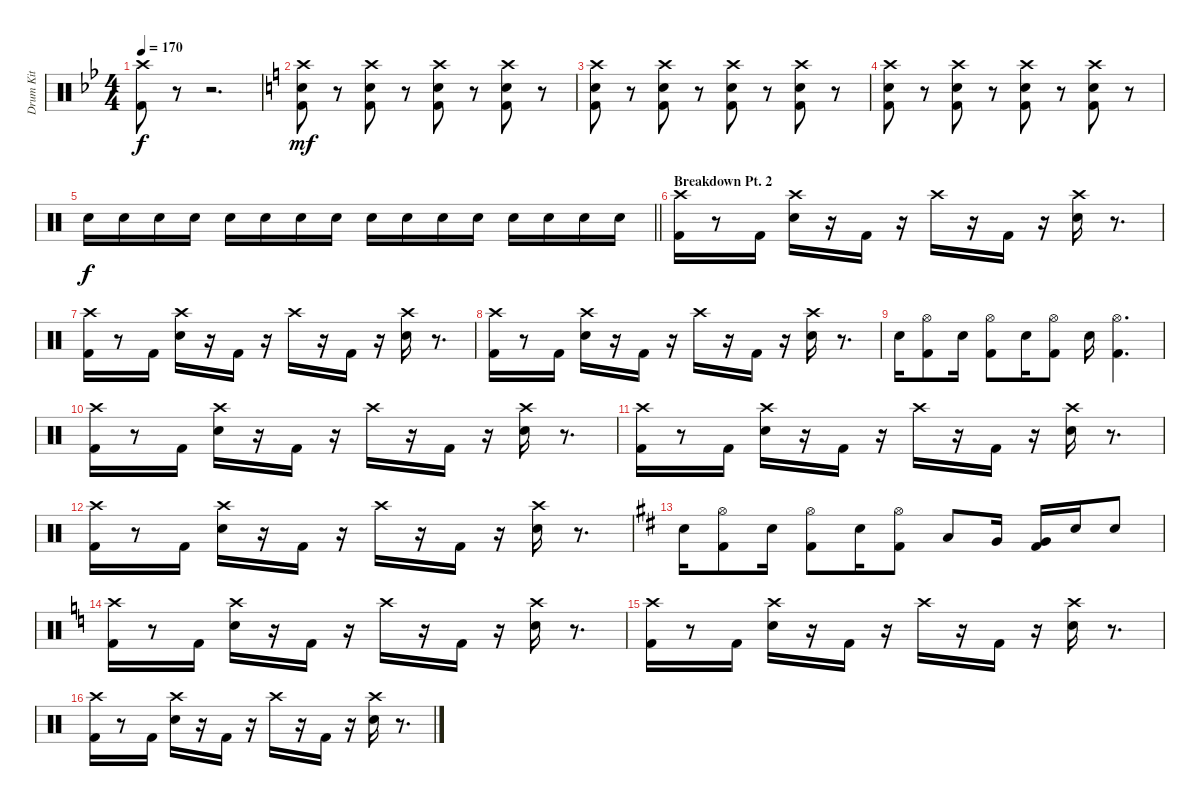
\track ("Drum Kit" "Drum Kit") {mute instrument percussion}
\staff {score}
\articulation defaults
\ts (4 4)
\tempo 170
\clef neutral
\ks bb
("Crash high (hit)" "Kick (hit) 2").8{dy f} r.8 r.2{d} |
\ks c
("Electric Snare (hit)" "Crash high (hit)" "Kick (hit) 2").8{dy mf} r.8 ("Electric Snare (hit)" "Crash high (hit)" "Kick (hit) 2").8 r.8 ("Electric Snare (hit)" "Crash high (hit)" "Kick (hit) 2").8 r.8 ("Electric Snare (hit)" "Crash high (hit)" "Kick (hit) 2").8 r.8 |
("Electric Snare (hit)" "Crash high (hit)" "Kick (hit) 2").8 r.8 ("Electric Snare (hit)" "Crash high (hit)" "Kick (hit) 2").8 r.8 ("Electric Snare (hit)" "Crash high (hit)" "Kick (hit) 2").8 r.8 ("Electric Snare (hit)" "Crash high (hit)" "Kick (hit) 2").8 r.8 |
("Electric Snare (hit)" "Crash high (hit)" "Kick (hit) 2").8 r.8 ("Electric Snare (hit)" "Crash high (hit)" "Kick (hit) 2").8 r.8 ("Electric Snare (hit)" "Crash high (hit)" "Kick (hit) 2").8 r.8 ("Electric Snare (hit)" "Crash high (hit)" "Kick (hit) 2").8 r.8 |
\barLineRight lightlight "Electric Snare (hit)".16{dy f} "Electric Snare (hit)".16 "Electric Snare (hit)".16 "Electric Snare (hit)".16 "Electric Snare (hit)".16 "Electric Snare (hit)".16 "Electric Snare (hit)".16 "Electric Snare (hit)".16 "Electric Snare (hit)".16 "Electric Snare (hit)".16 "Electric Snare (hit)".16 "Electric Snare (hit)".16 "Electric Snare (hit)".16 "Electric Snare (hit)".16 "Electric Snare (hit)".16 "Electric Snare (hit)".16
|
\section ("" "Breakdown Pt. 2")
("Crash high (hit)" "Kick (hit) 2").16 r.8 "Kick (hit) 2".16 ("Crash high (hit)" "Electric Snare (hit)").16 r.16 "Kick (hit) 2".16 r.16 "Crash high (hit)".16 r.16 "Kick (hit) 2".16 r.16 ("Crash high (hit)" "Electric Snare (hit)").16 r.8{d} |
("Crash high (hit)" "Kick (hit) 2").16 r.8 "Kick (hit) 2".16 ("Crash high (hit)" "Electric Snare (hit)").16 r.16 "Kick (hit) 2".16 r.16 "Crash high (hit)".16 r.16 "Kick (hit) 2".16 r.16 ("Crash high (hit)" "Electric Snare (hit)").16 r.8{d} |
("Crash high (hit)" "Kick (hit) 2").16 r.8 "Kick (hit) 2".16 ("Crash high (hit)" "Electric Snare (hit)").16 r.16 "Kick (hit) 2".16 r.16 "Crash high (hit)".16 r.16 "Kick (hit) 2".16 r.16 ("Crash high (hit)" "Electric Snare (hit)").16 r.8{d} |
"Electric Snare (hit)".16 ("Hi-Hat (open)" "Kick (hit) 2").8 "Electric Snare (hit)".16 ("Hi-Hat (open)" "Kick (hit) 2").8 "Electric Snare (hit)".16 ("Hi-Hat (open)" "Kick (hit) 2").8 "Electric Snare (hit)".16 ("Hi-Hat (open)" "Kick (hit) 2").4{d} |
("Crash high (hit)" "Kick (hit) 2").16 r.8 "Kick (hit) 2".16 ("Crash high (hit)" "Electric Snare (hit)").16 r.16 "Kick (hit) 2".16 r.16 "Crash high (hit)".16 r.16 "Kick (hit) 2".16 r.16 ("Crash high (hit)" "Electric Snare (hit)").16 r.8{d} |
("Crash high (hit)" "Kick (hit) 2").16 r.8 "Kick (hit) 2".16 ("Crash high (hit)" "Electric Snare (hit)").16 r.16 "Kick (hit) 2".16 r.16 "Crash high (hit)".16 r.16 "Kick (hit) 2".16 r.16 ("Crash high (hit)" "Electric Snare (hit)").16 r.8{d} |
("Crash high (hit)" "Kick (hit) 2").16 r.8 "Kick (hit) 2".16 ("Crash high (hit)" "Electric Snare (hit)").16 r.16 "Kick (hit) 2".16 r.16 "Crash high (hit)".16 r.16 "Kick (hit) 2".16 r.16 ("Crash high (hit)" "Electric Snare (hit)").16 r.8{d} |
\ks d "Electric Snare (hit)".16
("Hi-Hat (open)" "Kick (hit) 2").8 "Electric Snare (hit)".16 ("Hi-Hat (open)" "Kick (hit) 2").8 "Electric Snare (hit)".16 ("Hi-Hat (open)" "Kick (hit) 2").8 "Low Tom (hit)".8 "Very Low Tom (hit)".16 ("Very Low Tom (hit)" "Kick (hit) 2").16 "Electric Snare (hit)".16 "Electric Snare (hit)".8 |
\ks c
("Crash high (hit)" "Kick (hit) 2").16 r.8 "Kick (hit) 2".16 ("Crash high (hit)" "Electric Snare (hit)").16 r.16 "Kick (hit) 2".16 r.16 "Crash high (hit)".16 r.16 "Kick (hit) 2".16 r.16 ("Crash high (hit)" "Electric Snare (hit)").16 r.8{d} |
("Crash high (hit)" "Kick (hit) 2").16 r.8 "Kick (hit) 2".16 ("Crash high (hit)" "Electric Snare (hit)").16 r.16 "Kick (hit) 2".16 r.16 "Crash high (hit)".16 r.16 "Kick (hit) 2".16 r.16 ("Crash high (hit)" "Electric Snare (hit)").16 r.8{d} |
("Crash high (hit)" "Kick (hit) 2").16 r.8 "Kick (hit) 2".16 ("Crash high (hit)" "Electric Snare (hit)").16 r.16 "Kick (hit) 2".16 r.16 "Crash high (hit)".16 r.16 "Kick (hit) 2".16 r.16 ("Crash high (hit)" "Electric Snare (hit)").16 r.8{d}
